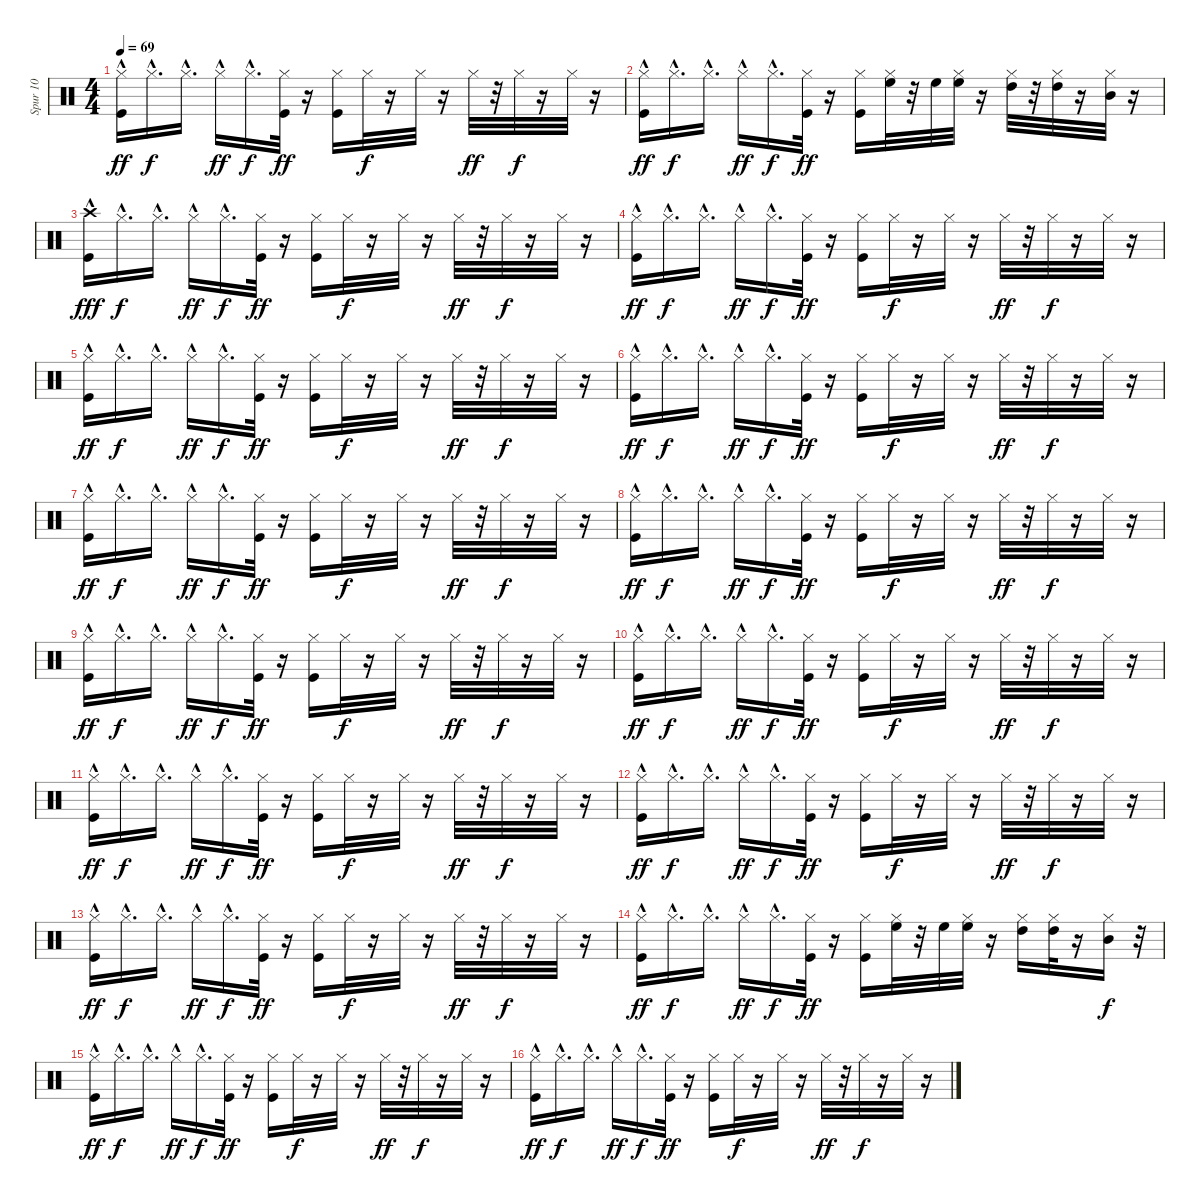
\track ("Spur 10" "Spur 10") {instrument percussion}
\staff {score}
\articulation defaults
\ts (4 4)
\tempo 69
\clef neutral
\ks c
("Kick (hit)"{hac} "Hi-Hat (closed)").16{dy ff} "Hi-Hat (closed)"{hac}.16{d dy f} "Hi-Hat (closed)"{hac}.16{d} "Hi-Hat (closed)"{hac}.16{dy ff} "Hi-Hat (closed)"{hac}.16{d dy f} ("Kick (hit)" "Hi-Hat (closed)").32{dy ff} r.16 ("Kick (hit)" "Hi-Hat (closed)").16 "Hi-Hat (closed)".32{dy f} r.16 "Hi-Hat (closed)".32 r.16 "Hi-Hat (closed)".32{dy ff} r.32 "Hi-Hat (closed)".32{dy f} r.16 "Hi-Hat (closed)".32 r.16 |
("Kick (hit)"{hac} "Hi-Hat (closed)").16{dy ff} "Hi-Hat (closed)"{hac}.16{d dy f} "Hi-Hat (closed)"{hac}.16{d} "Hi-Hat (closed)"{hac}.16{dy ff} "Hi-Hat (closed)"{hac}.16{d dy f} ("Kick (hit)" "Hi-Hat (closed)").32{dy ff} r.16 ("Kick (hit)" "Hi-Hat (closed)").16 ("Hi-Hat (closed)" "High Floor Tom (hit)").32 r.32 "High Floor Tom (hit)".32 ("Hi-Hat (closed)" "High Floor Tom (hit)").32 r.16 ("Hi-Hat (closed)" "High Tom (hit)").32 r.32 ("Hi-Hat (closed)" "High Tom (hit)").32 r.16 ("Hi-Hat (closed)" "Mid Tom (hit)").32 r.16 |
("Kick (hit)"{hac} "Crash high (hit)").16{dy fff} "Hi-Hat (closed)"{hac}.16{d dy f} "Hi-Hat (closed)"{hac}.16{d} "Hi-Hat (closed)"{hac}.16{dy ff} "Hi-Hat (closed)"{hac}.16{d dy f} ("Kick (hit)" "Hi-Hat (closed)").32{dy ff} r.16 ("Kick (hit)" "Hi-Hat (closed)").16 "Hi-Hat (closed)".32{dy f} r.16 "Hi-Hat (closed)".32 r.16 "Hi-Hat (closed)".32{dy ff} r.32 "Hi-Hat (closed)".32{dy f} r.16 "Hi-Hat (closed)".32 r.16 |
("Kick (hit)"{hac} "Hi-Hat (closed)").16{dy ff} "Hi-Hat (closed)"{hac}.16{d dy f} "Hi-Hat (closed)"{hac}.16{d} "Hi-Hat (closed)"{hac}.16{dy ff} "Hi-Hat (closed)"{hac}.16{d dy f} ("Kick (hit)" "Hi-Hat (closed)").32{dy ff} r.16 ("Kick (hit)" "Hi-Hat (closed)").16 "Hi-Hat (closed)".32{dy f} r.16 "Hi-Hat (closed)".32 r.16 "Hi-Hat (closed)".32{dy ff} r.32 "Hi-Hat (closed)".32{dy f} r.16 "Hi-Hat (closed)".32 r.16 |
("Kick (hit)"{hac} "Hi-Hat (closed)").16{dy ff} "Hi-Hat (closed)"{hac}.16{d dy f} "Hi-Hat (closed)"{hac}.16{d} "Hi-Hat (closed)"{hac}.16{dy ff} "Hi-Hat (closed)"{hac}.16{d dy f} ("Kick (hit)" "Hi-Hat (closed)").32{dy ff} r.16 ("Kick (hit)" "Hi-Hat (closed)").16 "Hi-Hat (closed)".32{dy f} r.16 "Hi-Hat (closed)".32 r.16 "Hi-Hat (closed)".32{dy ff} r.32 "Hi-Hat (closed)".32{dy f} r.16 "Hi-Hat (closed)".32 r.16 |
("Kick (hit)"{hac} "Hi-Hat (closed)").16{dy ff} "Hi-Hat (closed)"{hac}.16{d dy f} "Hi-Hat (closed)"{hac}.16{d} "Hi-Hat (closed)"{hac}.16{dy ff} "Hi-Hat (closed)"{hac}.16{d dy f} ("Kick (hit)" "Hi-Hat (closed)").32{dy ff} r.16 ("Kick (hit)" "Hi-Hat (closed)").16 "Hi-Hat (closed)".32{dy f} r.16 "Hi-Hat (closed)".32 r.16 "Hi-Hat (closed)".32{dy ff} r.32 "Hi-Hat (closed)".32{dy f} r.16 "Hi-Hat (closed)".32 r.16 |
("Kick (hit)"{hac} "Hi-Hat (closed)").16{dy ff} "Hi-Hat (closed)"{hac}.16{d dy f} "Hi-Hat (closed)"{hac}.16{d} "Hi-Hat (closed)"{hac}.16{dy ff} "Hi-Hat (closed)"{hac}.16{d dy f} ("Kick (hit)" "Hi-Hat (closed)").32{dy ff} r.16 ("Kick (hit)" "Hi-Hat (closed)").16 "Hi-Hat (closed)".32{dy f} r.16 "Hi-Hat (closed)".32 r.16 "Hi-Hat (closed)".32{dy ff} r.32 "Hi-Hat (closed)".32{dy f} r.16 "Hi-Hat (closed)".32 r.16 |
("Kick (hit)"{hac} "Hi-Hat (closed)").16{dy ff} "Hi-Hat (closed)"{hac}.16{d dy f} "Hi-Hat (closed)"{hac}.16{d} "Hi-Hat (closed)"{hac}.16{dy ff} "Hi-Hat (closed)"{hac}.16{d dy f} ("Kick (hit)" "Hi-Hat (closed)").32{dy ff} r.16 ("Kick (hit)" "Hi-Hat (closed)").16 "Hi-Hat (closed)".32{dy f} r.16 "Hi-Hat (closed)".32 r.16 "Hi-Hat (closed)".32{dy ff} r.32 "Hi-Hat (closed)".32{dy f} r.16 "Hi-Hat (closed)".32 r.16 |
("Kick (hit)"{hac} "Hi-Hat (closed)").16{dy ff} "Hi-Hat (closed)"{hac}.16{d dy f} "Hi-Hat (closed)"{hac}.16{d} "Hi-Hat (closed)"{hac}.16{dy ff} "Hi-Hat (closed)"{hac}.16{d dy f} ("Kick (hit)" "Hi-Hat (closed)").32{dy ff} r.16 ("Kick (hit)" "Hi-Hat (closed)").16 "Hi-Hat (closed)".32{dy f} r.16 "Hi-Hat (closed)".32 r.16 "Hi-Hat (closed)".32{dy ff} r.32 "Hi-Hat (closed)".32{dy f} r.16 "Hi-Hat (closed)".32 r.16 |
("Kick (hit)"{hac} "Hi-Hat (closed)").16{dy ff} "Hi-Hat (closed)"{hac}.16{d dy f} "Hi-Hat (closed)"{hac}.16{d} "Hi-Hat (closed)"{hac}.16{dy ff} "Hi-Hat (closed)"{hac}.16{d dy f} ("Kick (hit)" "Hi-Hat (closed)").32{dy ff} r.16 ("Kick (hit)" "Hi-Hat (closed)").16 "Hi-Hat (closed)".32{dy f} r.16 "Hi-Hat (closed)".32 r.16 "Hi-Hat (closed)".32{dy ff} r.32 "Hi-Hat (closed)".32{dy f} r.16 "Hi-Hat (closed)".32 r.16 |
("Kick (hit)"{hac} "Hi-Hat (closed)").16{dy ff} "Hi-Hat (closed)"{hac}.16{d dy f} "Hi-Hat (closed)"{hac}.16{d} "Hi-Hat (closed)"{hac}.16{dy ff} "Hi-Hat (closed)"{hac}.16{d dy f} ("Kick (hit)" "Hi-Hat (closed)").32{dy ff} r.16 ("Kick (hit)" "Hi-Hat (closed)").16 "Hi-Hat (closed)".32{dy f} r.16 "Hi-Hat (closed)".32 r.16 "Hi-Hat (closed)".32{dy ff} r.32 "Hi-Hat (closed)".32{dy f} r.16 "Hi-Hat (closed)".32 r.16 |
("Kick (hit)"{hac} "Hi-Hat (closed)").16{dy ff} "Hi-Hat (closed)"{hac}.16{d dy f} "Hi-Hat (closed)"{hac}.16{d} "Hi-Hat (closed)"{hac}.16{dy ff} "Hi-Hat (closed)"{hac}.16{d dy f} ("Kick (hit)" "Hi-Hat (closed)").32{dy ff} r.16 ("Kick (hit)" "Hi-Hat (closed)").16 "Hi-Hat (closed)".32{dy f} r.16 "Hi-Hat (closed)".32 r.16 "Hi-Hat (closed)".32{dy ff} r.32 "Hi-Hat (closed)".32{dy f} r.16 "Hi-Hat (closed)".32 r.16 |
("Kick (hit)"{hac} "Hi-Hat (closed)").16{dy ff} "Hi-Hat (closed)"{hac}.16{d dy f} "Hi-Hat (closed)"{hac}.16{d} "Hi-Hat (closed)"{hac}.16{dy ff} "Hi-Hat (closed)"{hac}.16{d dy f} ("Kick (hit)" "Hi-Hat (closed)").32{dy ff} r.16 ("Kick (hit)" "Hi-Hat (closed)").16 "Hi-Hat (closed)".32{dy f} r.16 "Hi-Hat (closed)".32 r.16 "Hi-Hat (closed)".32{dy ff} r.32 "Hi-Hat (closed)".32{dy f} r.16 "Hi-Hat (closed)".32 r.16 |
("Kick (hit)"{hac} "Hi-Hat (closed)").16{dy ff} "Hi-Hat (closed)"{hac}.16{d dy f} "Hi-Hat (closed)"{hac}.16{d} "Hi-Hat (closed)"{hac}.16{dy ff} "Hi-Hat (closed)"{hac}.16{d dy f} ("Kick (hit)" "Hi-Hat (closed)").32{dy ff} r.16 ("Kick (hit)" "Hi-Hat (closed)").16 ("Hi-Hat (closed)" "High Floor Tom (hit)").32 r.32 "High Floor Tom (hit)".32 ("Hi-Hat (closed)" "High Floor Tom (hit)").32 r.16 ("Hi-Hat (closed)" "High Tom (hit)").16 ("Hi-Hat (closed)" "High Tom (hit)").32 r.16 ("Hi-Hat (closed)" "Mid Tom (hit)").16{dy f} r.32 |
("Kick (hit)"{hac} "Hi-Hat (closed)").16{dy ff} "Hi-Hat (closed)"{hac}.16{d dy f} "Hi-Hat (closed)"{hac}.16{d} "Hi-Hat (closed)"{hac}.16{dy ff} "Hi-Hat (closed)"{hac}.16{d dy f} ("Kick (hit)" "Hi-Hat (closed)").32{dy ff} r.16 ("Kick (hit)" "Hi-Hat (closed)").16 "Hi-Hat (closed)".32{dy f} r.16 "Hi-Hat (closed)".32 r.16 "Hi-Hat (closed)".32{dy ff} r.32 "Hi-Hat (closed)".32{dy f} r.16 "Hi-Hat (closed)".32 r.16 |
("Kick (hit)"{hac} "Hi-Hat (closed)").16{dy ff} "Hi-Hat (closed)"{hac}.16{d dy f} "Hi-Hat (closed)"{hac}.16{d} "Hi-Hat (closed)"{hac}.16{dy ff} "Hi-Hat (closed)"{hac}.16{d dy f} ("Kick (hit)" "Hi-Hat (closed)").32{dy ff} r.16 ("Kick (hit)" "Hi-Hat (closed)").16 "Hi-Hat (closed)".32{dy f} r.16 "Hi-Hat (closed)".32 r.16 "Hi-Hat (closed)".32{dy ff} r.32 "Hi-Hat (closed)".32{dy f} r.16 "Hi-Hat (closed)".32 r.16
